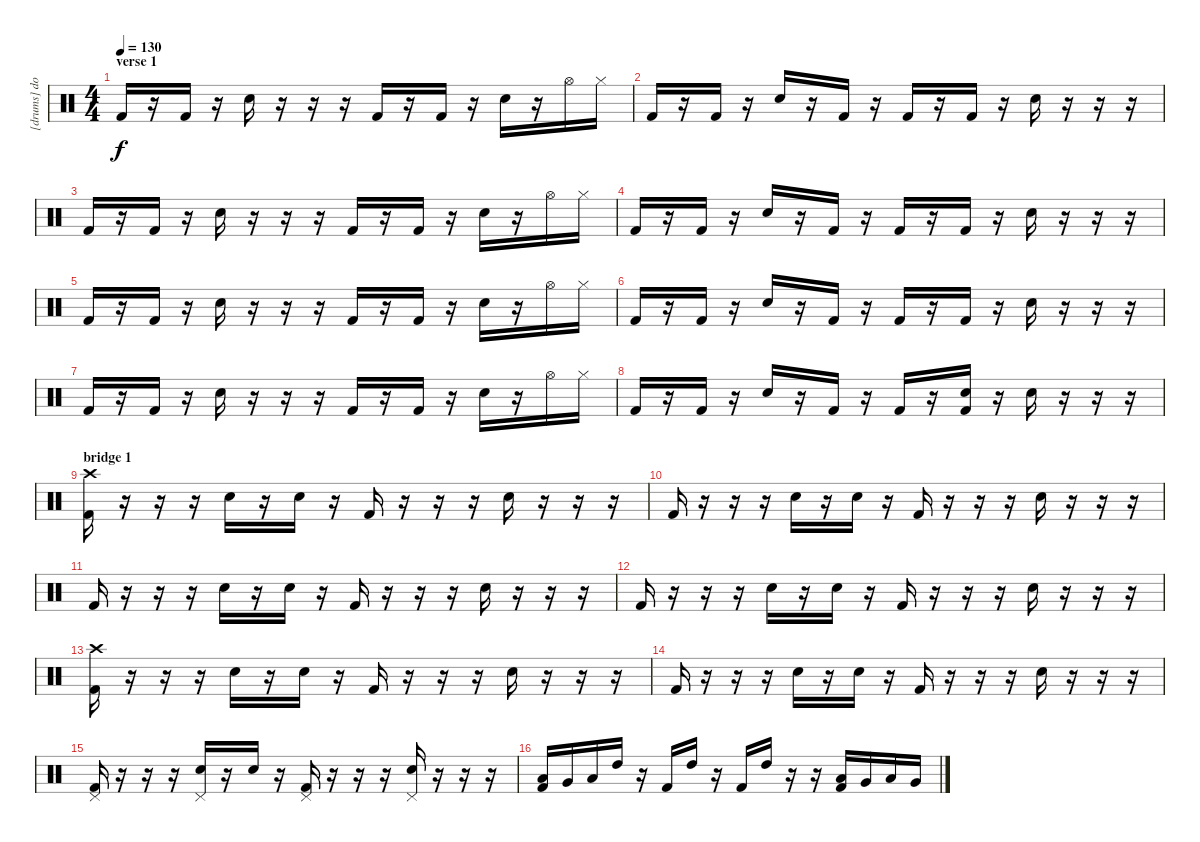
\track ("[drums] dom" "[drums] do") {instrument percussion}
\staff {score}
\articulation defaults
\ts (4 4)
\section ("" "verse 1")
\tempo 130
\clef neutral
\ks c "Kick (hit) 2".16{dy f}
r.16 "Kick (hit) 2".16 r.16 "Snare (hit) 2".16 r.16 r.16 r.16 "Kick (hit) 2".16 r.16 "Kick (hit) 2".16 r.16 "Snare (hit) 2".16 r.16 "Hi-Hat (open)".16 "Hi-Hat (closed)".16 |
"Kick (hit) 2".16 r.16 "Kick (hit) 2".16 r.16 "Snare (hit) 2".16 r.16 "Kick (hit) 2".16 r.16 "Kick (hit) 2".16 r.16 "Kick (hit) 2".16 r.16 "Snare (hit) 2".16 r.16 r.16 r.16 |
"Kick (hit) 2".16 r.16 "Kick (hit) 2".16 r.16 "Snare (hit) 2".16 r.16 r.16 r.16 "Kick (hit) 2".16 r.16 "Kick (hit) 2".16 r.16 "Snare (hit) 2".16 r.16 "Hi-Hat (open)".16 "Hi-Hat (closed)".16 |
"Kick (hit) 2".16 r.16 "Kick (hit) 2".16 r.16 "Snare (hit) 2".16 r.16 "Kick (hit) 2".16 r.16 "Kick (hit) 2".16 r.16 "Kick (hit) 2".16 r.16 "Snare (hit) 2".16 r.16 r.16 r.16 |
"Kick (hit) 2".16 r.16 "Kick (hit) 2".16 r.16 "Snare (hit) 2".16 r.16 r.16 r.16 "Kick (hit) 2".16 r.16 "Kick (hit) 2".16 r.16 "Snare (hit) 2".16 r.16 "Hi-Hat (open)".16 "Hi-Hat (closed)".16 |
"Kick (hit) 2".16 r.16 "Kick (hit) 2".16 r.16 "Snare (hit) 2".16 r.16 "Kick (hit) 2".16 r.16 "Kick (hit) 2".16 r.16 "Kick (hit) 2".16 r.16 "Snare (hit) 2".16 r.16 r.16 r.16 |
"Kick (hit) 2".16 r.16 "Kick (hit) 2".16 r.16 "Snare (hit) 2".16 r.16 r.16 r.16 "Kick (hit) 2".16 r.16 "Kick (hit) 2".16 r.16 "Snare (hit) 2".16 r.16 "Hi-Hat (open)".16 "Hi-Hat (closed)".16 |
"Kick (hit) 2".16 r.16 "Kick (hit) 2".16 r.16 "Snare (hit) 2".16 r.16 "Kick (hit) 2".16 r.16 "Kick (hit) 2".16 r.16 ("Snare (hit) 2" "Kick (hit) 2").16 r.16 "Snare (hit) 2".16 r.16 r.16 r.16 |
\section ("" "bridge 1")
("Crash high (hit)" "Kick (hit) 2").16 r.16 r.16 r.16 "Snare (hit) 2".16 r.16 "Snare (hit) 2".16 r.16 "Kick (hit) 2".16 r.16 r.16 r.16 "Snare (hit) 2".16 r.16 r.16 r.16 |
"Kick (hit) 2".16 r.16 r.16 r.16 "Snare (hit) 2".16 r.16 "Snare (hit) 2".16 r.16 "Kick (hit) 2".16 r.16 r.16 r.16 "Snare (hit) 2".16 r.16 r.16 r.16 |
"Kick (hit) 2".16 r.16 r.16 r.16 "Snare (hit) 2".16 r.16 "Snare (hit) 2".16 r.16 "Kick (hit) 2".16 r.16 r.16 r.16 "Snare (hit) 2".16 r.16 r.16 r.16 |
"Kick (hit) 2".16 r.16 r.16 r.16 "Snare (hit) 2".16 r.16 "Snare (hit) 2".16 r.16 "Kick (hit) 2".16 r.16 r.16 r.16 "Snare (hit) 2".16 r.16 r.16 r.16 |
("Crash high (hit)" "Kick (hit) 2").16 r.16 r.16 r.16 "Snare (hit) 2".16 r.16 "Snare (hit) 2".16 r.16 "Kick (hit) 2".16 r.16 r.16 r.16 "Snare (hit) 2".16 r.16 r.16 r.16 |
"Kick (hit) 2".16 r.16 r.16 r.16 "Snare (hit) 2".16 r.16 "Snare (hit) 2".16 r.16 "Kick (hit) 2".16 r.16 r.16 r.16 "Snare (hit) 2".16 r.16 r.16 r.16 |
("Pedal Hi-Hat (hit)" "Kick (hit) 2").16 r.16 r.16 r.16 ("Pedal Hi-Hat (hit)" "Snare (hit) 2").16 r.16 "Snare (hit) 2".16 r.16 ("Pedal Hi-Hat (hit)" "Kick (hit) 2").16 r.16 r.16 r.16 ("Pedal Hi-Hat (hit)" "Snare (hit) 2").16 r.16 r.16 r.16 |
("Low Floor Tom (hit)" "Kick (hit) 2").16 "Very Low Tom (hit)".16 "Low Floor Tom (hit)".16 "High Tom (hit)".16 r.16 "Kick (hit) 2".16 "High Tom (hit)".16 r.16 "Kick (hit) 2".16 "High Tom (hit)".16 r.16 r.16 ("Low Floor Tom (hit)" "Kick (hit) 2").16 "Very Low Tom (hit)".16 "Low Floor Tom (hit)".16 "Very Low Tom (hit)".16
